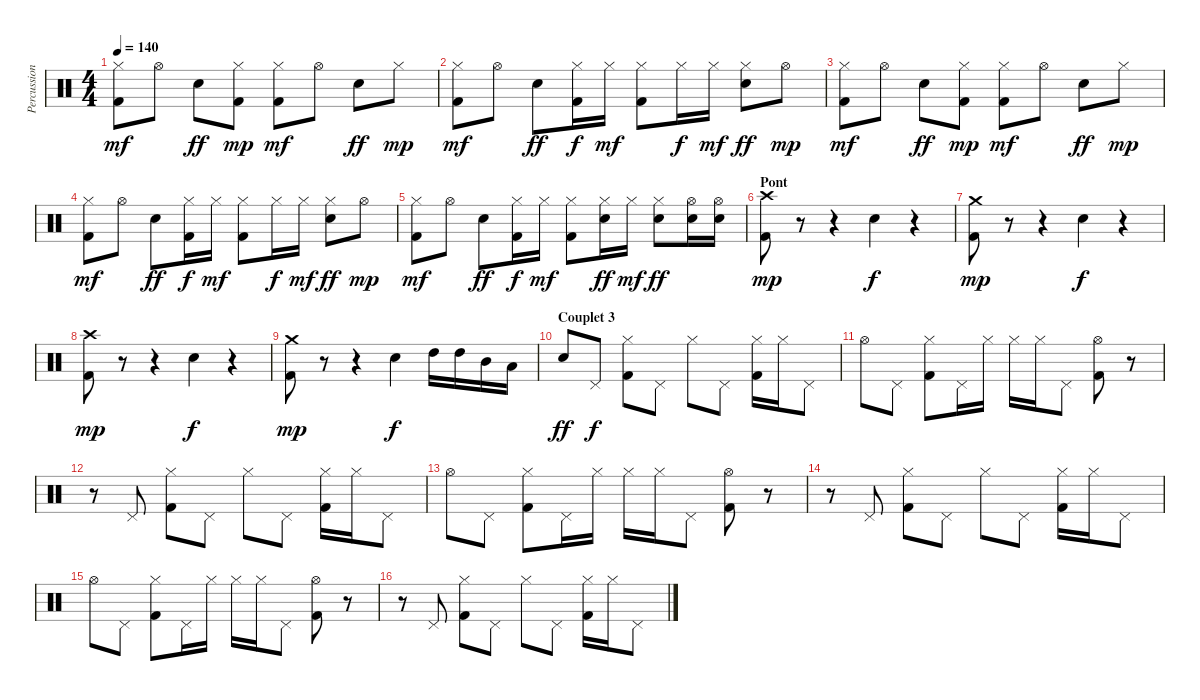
\track ("Percussions" "Percussion") {instrument percussion}
\staff {score}
\articulation defaults
\ts (4 4)
\tempo 140
\clef neutral
\ks c
("Hi-Hat (closed)" "Kick (hit) 2").8{dy mf} "Hi-Hat (open)".8 "Electric Snare (hit)".8{dy ff} ("Hi-Hat (closed)" "Kick (hit) 2").8{dy mp} ("Hi-Hat (closed)" "Kick (hit) 2").8{dy mf} "Hi-Hat (open)".8 "Electric Snare (hit)".8{dy ff} "Hi-Hat (closed)".8{dy mp} |
("Hi-Hat (closed)" "Kick (hit) 2").8{dy mf} "Hi-Hat (open)".8 "Electric Snare (hit)".8{dy ff} ("Hi-Hat (closed)" "Kick (hit) 2").16{dy f} "Hi-Hat (closed)".16{dy mf} ("Hi-Hat (closed)" "Kick (hit) 2").8 "Hi-Hat (closed)".16{dy f} "Hi-Hat (closed)".16{dy mf} ("Hi-Hat (closed)" "Electric Snare (hit)").8{dy ff} "Hi-Hat (open)".8{dy mp} |
("Hi-Hat (closed)" "Kick (hit) 2").8{dy mf} "Hi-Hat (open)".8 "Electric Snare (hit)".8{dy ff} ("Hi-Hat (closed)" "Kick (hit) 2").8{dy mp} ("Hi-Hat (closed)" "Kick (hit) 2").8{dy mf} "Hi-Hat (open)".8 "Electric Snare (hit)".8{dy ff} "Hi-Hat (closed)".8{dy mp} |
("Hi-Hat (closed)" "Kick (hit) 2").8{dy mf} "Hi-Hat (open)".8 "Electric Snare (hit)".8{dy ff} ("Hi-Hat (closed)" "Kick (hit) 2").16{dy f} "Hi-Hat (closed)".16{dy mf} ("Hi-Hat (closed)" "Kick (hit) 2").8 "Hi-Hat (closed)".16{dy f} "Hi-Hat (closed)".16{dy mf} ("Hi-Hat (closed)" "Electric Snare (hit)").8{dy ff} "Hi-Hat (open)".8{dy mp} |
("Hi-Hat (closed)" "Kick (hit) 2").8{dy mf} "Hi-Hat (open)".8 "Electric Snare (hit)".8{dy ff} ("Hi-Hat (closed)" "Kick (hit) 2").16{dy f} "Hi-Hat (closed)".16{dy mf} ("Hi-Hat (closed)" "Kick (hit) 2").8 ("Hi-Hat (closed)" "Electric Snare (hit)").16{dy ff} "Hi-Hat (closed)".16{dy mf} ("Hi-Hat (closed)" "Electric Snare (hit)").8{dy ff} ("Hi-Hat (open)" "Electric Snare (hit)").16 ("Hi-Hat (open)" "Electric Snare (hit)").16 |
\section ("" "Pont")
("Crash high (hit)" "Kick (hit) 2").8{dy mp} r.8 r.4 "Snare (hit) 2".4{dy f} r.4 |
("Crash medium (hit)" "Kick (hit) 2").8{dy mp} r.8 r.4 "Snare (hit) 2".4{dy f} r.4 |
("Crash high (hit)" "Kick (hit) 2").8{dy mp} r.8 r.4 "Snare (hit) 2".4{dy f} r.4 |
("Crash medium (hit)" "Kick (hit) 2").8{dy mp} r.8 r.4 "Snare (hit) 2".4{dy f} "High Tom (hit)".16 "High Tom (hit)".16 "Mid Tom (hit)".16 "Low Tom (hit)".16 |
\section ("" "Couplet 3")
"Electric Snare (hit)".8{dy ff} "Pedal Hi-Hat (hit)".8{dy f} ("Hi-Hat (closed)" "Kick (hit) 2").8 "Pedal Hi-Hat (hit)".8 "Hi-Hat (closed)".8 "Pedal Hi-Hat (hit)".8 ("Hi-Hat (closed)" "Kick (hit) 2").16 "Hi-Hat (closed)".16 "Pedal Hi-Hat (hit)".8 |
"Hi-Hat (open)".8 "Pedal Hi-Hat (hit)".8 ("Hi-Hat (closed)" "Kick (hit) 2").8 "Pedal Hi-Hat (hit)".16 "Hi-Hat (closed)".16 "Hi-Hat (closed)".16 "Hi-Hat (closed)".16 "Pedal Hi-Hat (hit)".8 ("Hi-Hat (open)" "Kick (hit) 2").8 r.8 |
r.8 "Pedal Hi-Hat (hit)".8 ("Hi-Hat (closed)" "Kick (hit) 2").8 "Pedal Hi-Hat (hit)".8 "Hi-Hat (closed)".8 "Pedal Hi-Hat (hit)".8 ("Hi-Hat (closed)" "Kick (hit) 2").16 "Hi-Hat (closed)".16 "Pedal Hi-Hat (hit)".8 |
"Hi-Hat (open)".8 "Pedal Hi-Hat (hit)".8 ("Hi-Hat (closed)" "Kick (hit) 2").8 "Pedal Hi-Hat (hit)".16 "Hi-Hat (closed)".16 "Hi-Hat (closed)".16 "Hi-Hat (closed)".16 "Pedal Hi-Hat (hit)".8 ("Hi-Hat (open)" "Kick (hit) 2").8 r.8 |
r.8 "Pedal Hi-Hat (hit)".8 ("Hi-Hat (closed)" "Kick (hit) 2").8 "Pedal Hi-Hat (hit)".8 "Hi-Hat (closed)".8 "Pedal Hi-Hat (hit)".8 ("Hi-Hat (closed)" "Kick (hit) 2").16 "Hi-Hat (closed)".16 "Pedal Hi-Hat (hit)".8 |
"Hi-Hat (open)".8 "Pedal Hi-Hat (hit)".8 ("Hi-Hat (closed)" "Kick (hit) 2").8 "Pedal Hi-Hat (hit)".16 "Hi-Hat (closed)".16 "Hi-Hat (closed)".16 "Hi-Hat (closed)".16 "Pedal Hi-Hat (hit)".8 ("Hi-Hat (open)" "Kick (hit) 2").8 r.8 |
r.8 "Pedal Hi-Hat (hit)".8 ("Hi-Hat (closed)" "Kick (hit) 2").8 "Pedal Hi-Hat (hit)".8 "Hi-Hat (closed)".8 "Pedal Hi-Hat (hit)".8 ("Hi-Hat (closed)" "Kick (hit) 2").16 "Hi-Hat (closed)".16 "Pedal Hi-Hat (hit)".8
